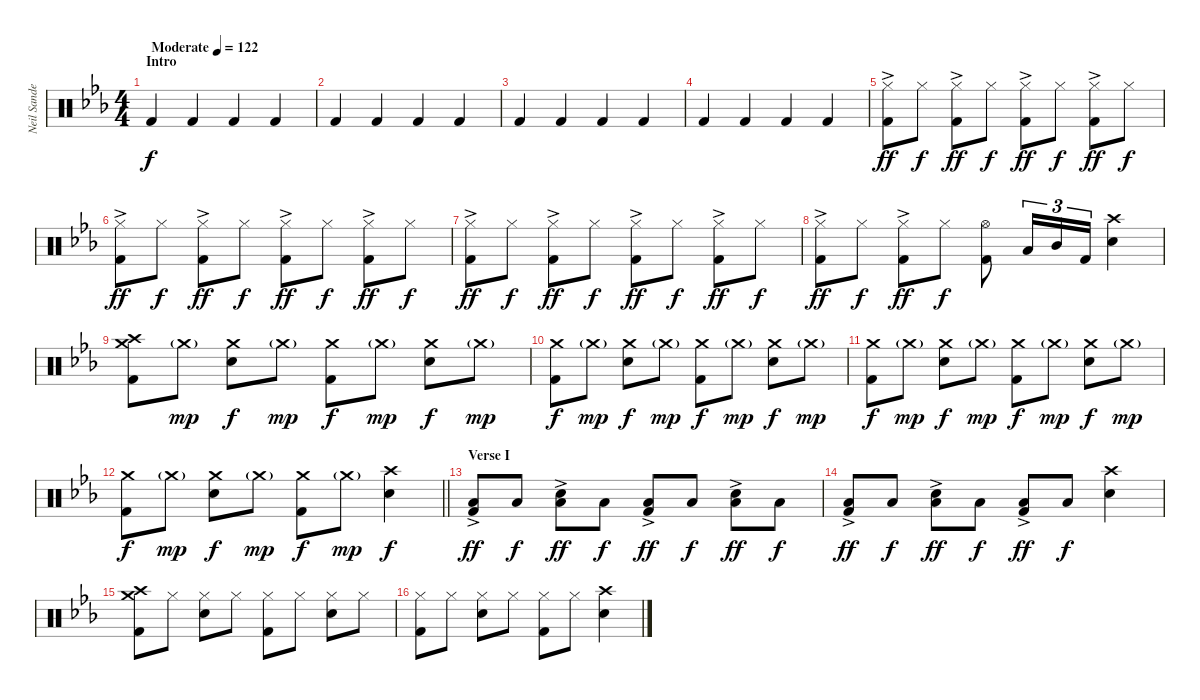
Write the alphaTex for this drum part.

\track ("Neil Sanderson" "Neil Sande") {instrument percussion}
\staff {score}
\articulation defaults
\ts (4 4)
\section ("" "Intro")
\tempo (122 "Moderate")
\clef neutral
\ks cminor "Kick (hit) 2".4{dy f} "Kick (hit) 2".4 "Kick (hit) 2".4 "Kick (hit) 2".4
|
"Kick (hit) 2".4 "Kick (hit) 2".4 "Kick (hit) 2".4 "Kick (hit) 2".4 |
"Kick (hit) 2".4 "Kick (hit) 2".4 "Kick (hit) 2".4 "Kick (hit) 2".4 |
"Kick (hit) 2".4 "Kick (hit) 2".4 "Kick (hit) 2".4 "Kick (hit) 2".4 |
("Hi-Hat (closed)"{ac} "Kick (hit) 2").8{dy ff} "Hi-Hat (closed)".8{dy f} ("Hi-Hat (closed)"{ac} "Kick (hit) 2").8{dy ff} "Hi-Hat (closed)".8{dy f} ("Hi-Hat (closed)"{ac} "Kick (hit) 2").8{dy ff} "Hi-Hat (closed)".8{dy f} ("Hi-Hat (closed)"{ac} "Kick (hit) 2").8{dy ff} "Hi-Hat (closed)".8{dy f} |
("Hi-Hat (closed)"{ac} "Kick (hit) 2").8{dy ff} "Hi-Hat (closed)".8{dy f} ("Hi-Hat (closed)"{ac} "Kick (hit) 2").8{dy ff} "Hi-Hat (closed)".8{dy f} ("Hi-Hat (closed)"{ac} "Kick (hit) 2").8{dy ff} "Hi-Hat (closed)".8{dy f} ("Hi-Hat (closed)"{ac} "Kick (hit) 2").8{dy ff} "Hi-Hat (closed)".8{dy f} |
("Hi-Hat (closed)"{ac} "Kick (hit) 2").8{dy ff} "Hi-Hat (closed)".8{dy f} ("Hi-Hat (closed)"{ac} "Kick (hit) 2").8{dy ff} "Hi-Hat (closed)".8{dy f} ("Hi-Hat (closed)"{ac} "Kick (hit) 2").8{dy ff} "Hi-Hat (closed)".8{dy f} ("Hi-Hat (closed)"{ac} "Kick (hit) 2").8{dy ff} "Hi-Hat (closed)".8{dy f} |
("Hi-Hat (closed)"{ac} "Kick (hit) 2").8{dy ff} "Hi-Hat (closed)".8{dy f} ("Hi-Hat (closed)"{ac} "Kick (hit) 2").8{dy ff} "Hi-Hat (closed)".8{dy f} ("Hi-Hat (open)" "Kick (hit) 2").8 "Low Tom (hit)".16{tu (3 2)} "Mid Tom (hit)".16{tu (3 2)} "Kick (hit) 2".16{tu (3 2)} ("Crash high (hit)" "Electric Snare (hit)").4 |
("Crash medium (hit)" "Crash high (hit)" "Kick (hit) 2").8 "Crash medium (hit)"{g}.8{dy mp} ("Crash medium (hit)" "Electric Snare (hit)").8{dy f} "Crash medium (hit)"{g}.8{dy mp} ("Crash medium (hit)" "Kick (hit) 2").8{dy f} "Crash medium (hit)"{g}.8{dy mp} ("Crash medium (hit)" "Electric Snare (hit)").8{dy f} "Crash medium (hit)"{g}.8{dy mp} |
("Crash medium (hit)" "Kick (hit) 2").8{dy f} "Crash medium (hit)"{g}.8{dy mp} ("Crash medium (hit)" "Electric Snare (hit)").8{dy f} "Crash medium (hit)"{g}.8{dy mp} ("Crash medium (hit)" "Kick (hit) 2").8{dy f} "Crash medium (hit)"{g}.8{dy mp} ("Crash medium (hit)" "Electric Snare (hit)").8{dy f} "Crash medium (hit)"{g}.8{dy mp} |
("Crash medium (hit)" "Kick (hit) 2").8{dy f} "Crash medium (hit)"{g}.8{dy mp} ("Crash medium (hit)" "Electric Snare (hit)").8{dy f} "Crash medium (hit)"{g}.8{dy mp} ("Crash medium (hit)" "Kick (hit) 2").8{dy f} "Crash medium (hit)"{g}.8{dy mp} ("Crash medium (hit)" "Electric Snare (hit)").8{dy f} "Crash medium (hit)"{g}.8{dy mp} |
\barLineRight lightlight
("Crash medium (hit)" "Kick (hit) 2").8{dy f} "Crash medium (hit)"{g}.8{dy mp} ("Crash medium (hit)" "Electric Snare (hit)").8{dy f} "Crash medium (hit)"{g}.8{dy mp} ("Crash medium (hit)" "Kick (hit) 2").8{dy f} "Crash medium (hit)"{g}.8{dy mp} ("Crash high (hit)" "Electric Snare (hit)").4{dy f} |
\section ("" "Verse I")
("Low Floor Tom (hit)"{ac} "Kick (hit) 2").8{dy ff} "Low Floor Tom (hit)".8{dy f} ("Electric Snare (hit)" "Low Floor Tom (hit)"{ac}).8{dy ff} "Low Floor Tom (hit)".8{dy f} ("Low Floor Tom (hit)"{ac} "Kick (hit) 2").8{dy ff} "Low Floor Tom (hit)".8{dy f} ("Electric Snare (hit)" "Low Floor Tom (hit)"{ac}).8{dy ff} "Low Floor Tom (hit)".8{dy f} |
("Low Floor Tom (hit)"{ac} "Kick (hit) 2").8{dy ff} "Low Floor Tom (hit)".8{dy f} ("Electric Snare (hit)" "Low Floor Tom (hit)"{ac}).8{dy ff} "Low Floor Tom (hit)".8{dy f} ("Low Floor Tom (hit)"{ac} "Kick (hit) 2").8{dy ff} "Low Floor Tom (hit)".8{dy f} ("Crash high (hit)" "Electric Snare (hit)").4 |
("Crash medium (hit)" "Crash high (hit)" "Kick (hit) 2").8 "Hi-Hat (closed)".8 ("Hi-Hat (closed)" "Electric Snare (hit)").8 "Hi-Hat (closed)".8 ("Hi-Hat (closed)" "Kick (hit) 2").8 "Hi-Hat (closed)".8 ("Hi-Hat (closed)" "Electric Snare (hit)").8 "Hi-Hat (closed)".8 |
("Hi-Hat (closed)" "Kick (hit) 2").8 "Hi-Hat (closed)".8 ("Hi-Hat (closed)" "Electric Snare (hit)").8 "Hi-Hat (closed)".8 ("Hi-Hat (closed)" "Kick (hit) 2").8 "Hi-Hat (closed)".8 ("Crash high (hit)" "Electric Snare (hit)").4
